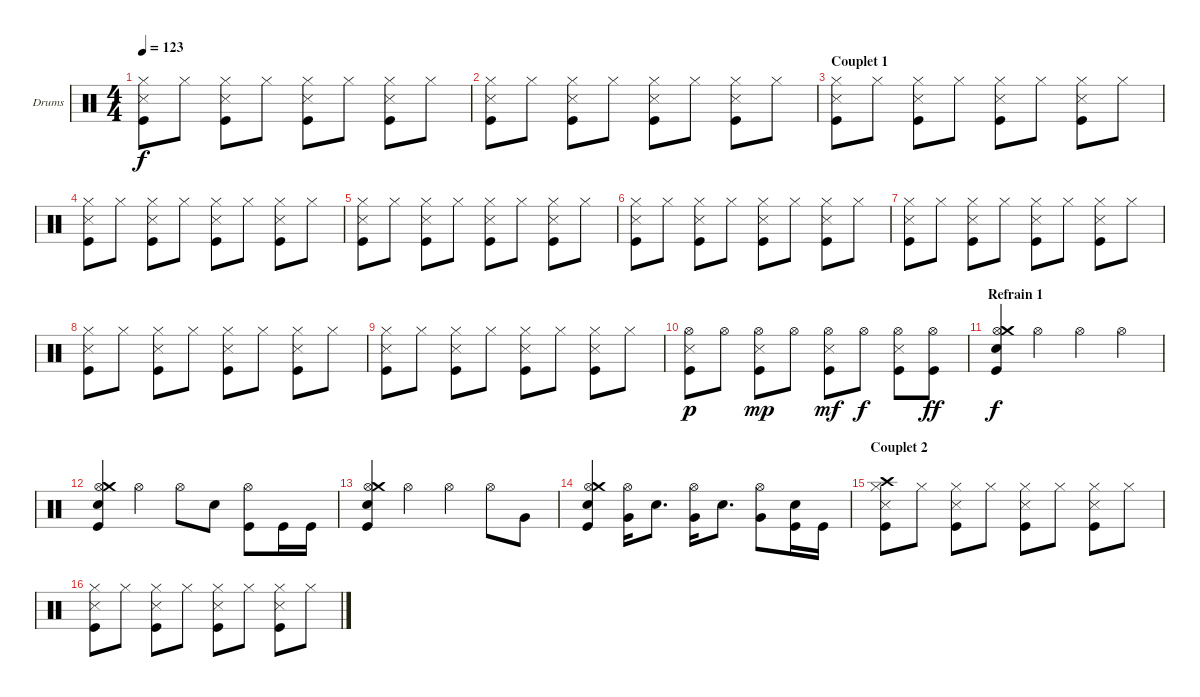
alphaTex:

\bracketExtendMode groupsimilarinstruments
\firstSystemTrackNameOrientation horizontal
\otherSystemsTrackNameOrientation horizontal
\track ("Drumkit" "Drums") {instrument percussion}
\staff {score}
\articulation defaults
\ts (4 4)
\tempo 123
\clef neutral
\ks c
("Hi-Hat (closed)" "Snare (side stick) 3" "Kick (hit)").8{dy f} "Hi-Hat (closed)".8 ("Hi-Hat (closed)" "Snare (side stick) 3" "Kick (hit)").8 "Hi-Hat (closed)".8 ("Hi-Hat (closed)" "Snare (side stick) 3" "Kick (hit)").8 "Hi-Hat (closed)".8 ("Hi-Hat (closed)" "Snare (side stick) 3" "Kick (hit)").8 "Hi-Hat (closed)".8 |
("Hi-Hat (closed)" "Snare (side stick) 3" "Kick (hit)").8 "Hi-Hat (closed)".8 ("Hi-Hat (closed)" "Snare (side stick) 3" "Kick (hit)").8 "Hi-Hat (closed)".8 ("Hi-Hat (closed)" "Snare (side stick) 3" "Kick (hit)").8 "Hi-Hat (closed)".8 ("Hi-Hat (closed)" "Snare (side stick) 3" "Kick (hit)").8 "Hi-Hat (closed)".8 |
\section ("" "Couplet 1")
("Hi-Hat (closed)" "Snare (side stick) 3" "Kick (hit)").8 "Hi-Hat (closed)".8 ("Hi-Hat (closed)" "Snare (side stick) 3" "Kick (hit)").8 "Hi-Hat (closed)".8 ("Hi-Hat (closed)" "Snare (side stick) 3" "Kick (hit)").8 "Hi-Hat (closed)".8 ("Hi-Hat (closed)" "Snare (side stick) 3" "Kick (hit)").8 "Hi-Hat (closed)".8 |
("Hi-Hat (closed)" "Snare (side stick) 3" "Kick (hit)").8 "Hi-Hat (closed)".8 ("Hi-Hat (closed)" "Snare (side stick) 3" "Kick (hit)").8 "Hi-Hat (closed)".8 ("Hi-Hat (closed)" "Snare (side stick) 3" "Kick (hit)").8 "Hi-Hat (closed)".8 ("Hi-Hat (closed)" "Snare (side stick) 3" "Kick (hit)").8 "Hi-Hat (closed)".8 |
("Hi-Hat (closed)" "Snare (side stick) 3" "Kick (hit)").8 "Hi-Hat (closed)".8 ("Hi-Hat (closed)" "Snare (side stick) 3" "Kick (hit)").8 "Hi-Hat (closed)".8 ("Hi-Hat (closed)" "Snare (side stick) 3" "Kick (hit)").8 "Hi-Hat (closed)".8 ("Hi-Hat (closed)" "Snare (side stick) 3" "Kick (hit)").8 "Hi-Hat (closed)".8 |
("Hi-Hat (closed)" "Snare (side stick) 3" "Kick (hit)").8 "Hi-Hat (closed)".8 ("Hi-Hat (closed)" "Snare (side stick) 3" "Kick (hit)").8 "Hi-Hat (closed)".8 ("Hi-Hat (closed)" "Snare (side stick) 3" "Kick (hit)").8 "Hi-Hat (closed)".8 ("Hi-Hat (closed)" "Snare (side stick) 3" "Kick (hit)").8 "Hi-Hat (closed)".8 |
("Hi-Hat (closed)" "Snare (side stick) 3" "Kick (hit)").8 "Hi-Hat (closed)".8 ("Hi-Hat (closed)" "Snare (side stick) 3" "Kick (hit)").8 "Hi-Hat (closed)".8 ("Hi-Hat (closed)" "Snare (side stick) 3" "Kick (hit)").8 "Hi-Hat (closed)".8 ("Hi-Hat (closed)" "Snare (side stick) 3" "Kick (hit)").8 "Hi-Hat (closed)".8 |
("Hi-Hat (closed)" "Snare (side stick) 3" "Kick (hit)").8 "Hi-Hat (closed)".8 ("Hi-Hat (closed)" "Snare (side stick) 3" "Kick (hit)").8 "Hi-Hat (closed)".8 ("Hi-Hat (closed)" "Snare (side stick) 3" "Kick (hit)").8 "Hi-Hat (closed)".8 ("Hi-Hat (closed)" "Snare (side stick) 3" "Kick (hit)").8 "Hi-Hat (closed)".8 |
("Hi-Hat (closed)" "Snare (side stick) 3" "Kick (hit)").8 "Hi-Hat (closed)".8 ("Hi-Hat (closed)" "Snare (side stick) 3" "Kick (hit)").8 "Hi-Hat (closed)".8 ("Hi-Hat (closed)" "Snare (side stick) 3" "Kick (hit)").8 "Hi-Hat (closed)".8 ("Hi-Hat (closed)" "Snare (side stick) 3" "Kick (hit)").8 "Hi-Hat (closed)".8 |
("Hi-Hat (open)" "Snare (side stick) 3" "Kick (hit)").8{dy p} "Hi-Hat (open)".8 ("Hi-Hat (open)" "Snare (side stick) 3" "Kick (hit)").8{dy mp} "Hi-Hat (open)".8 ("Hi-Hat (open)" "Snare (side stick) 3" "Kick (hit)").8{dy mf} "Hi-Hat (open)".8{dy f} ("Hi-Hat (open)" "Snare (side stick) 3" "Kick (hit)").8 ("Hi-Hat (open)" "Kick (hit)").8{dy ff} |
\section ("" "Refrain 1")
("Hi-Hat (open)" "Crash medium (hit)" "Snare (hit) 2" "Kick (hit)").4{dy f} "Hi-Hat (open)".4 "Hi-Hat (open)".4 "Hi-Hat (open)".4 |
("Hi-Hat (open)" "Crash medium (hit)" "Snare (hit) 2" "Kick (hit)").4 "Hi-Hat (open)".4 "Hi-Hat (open)".8 "Snare (hit) 2".8 ("Hi-Hat (open)" "Kick (hit)").8 "Kick (hit)".16 "Kick (hit)".16 |
("Hi-Hat (open)" "Crash medium (hit)" "Snare (hit) 2" "Kick (hit)").4 "Hi-Hat (open)".4 "Hi-Hat (open)".4 "Hi-Hat (open)".8 "Very Low Tom (hit)".8 |
("Hi-Hat (open)" "Crash medium (hit)" "Snare (hit) 2" "Kick (hit)").4 ("Hi-Hat (open)" "Very Low Tom (hit)").16 "Snare (hit) 2".8{d} ("Hi-Hat (open)" "Very Low Tom (hit)").16 "Snare (hit) 2".8{d} ("Hi-Hat (open)" "Very Low Tom (hit)").8 ("Snare (hit) 2" "Kick (hit)").16 "Kick (hit)".16 |
\section ("" "Couplet 2")
("Hi-Hat (closed)" "Crash high (hit)" "Snare (side stick) 3" "Kick (hit)").8 "Hi-Hat (closed)".8 ("Hi-Hat (closed)" "Snare (side stick) 3" "Kick (hit)").8 "Hi-Hat (closed)".8 ("Hi-Hat (closed)" "Snare (side stick) 3" "Kick (hit)").8 "Hi-Hat (closed)".8 ("Hi-Hat (closed)" "Snare (side stick) 3" "Kick (hit)").8 "Hi-Hat (closed)".8 |
("Hi-Hat (closed)" "Snare (side stick) 3" "Kick (hit)").8 "Hi-Hat (closed)".8 ("Hi-Hat (closed)" "Snare (side stick) 3" "Kick (hit)").8 "Hi-Hat (closed)".8 ("Hi-Hat (closed)" "Snare (side stick) 3" "Kick (hit)").8 "Hi-Hat (closed)".8 ("Hi-Hat (closed)" "Snare (side stick) 3" "Kick (hit)").8 "Hi-Hat (closed)".8
